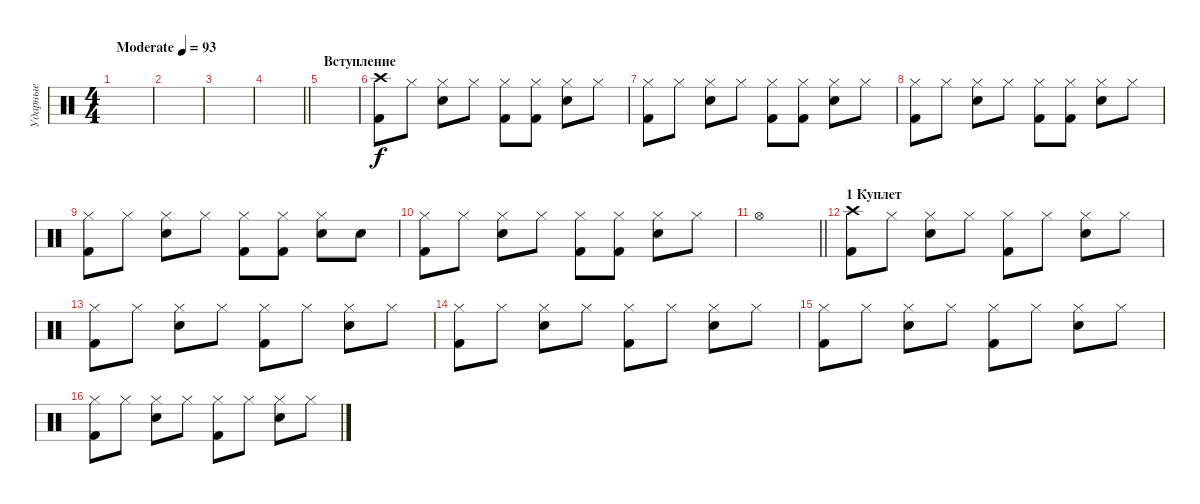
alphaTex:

\track ("Ударные" "Ударные") {instrument percussion}
\staff
\articulation defaults
\ts (4 4)
\tempo (93 "Moderate")
\clef neutral
\ks c
|
|
|
\barLineRight lightlight
|
\section ("" "Вступление")
|
("Crash high (hit)" "Kick (hit) 2").8 "Hi-Hat (closed)".8 ("Hi-Hat (closed)" "Electric Snare (hit)").8 "Hi-Hat (closed)".8 ("Hi-Hat (closed)" "Kick (hit) 2").8 ("Hi-Hat (closed)" "Kick (hit) 2").8 ("Hi-Hat (closed)" "Electric Snare (hit)").8 "Hi-Hat (closed)".8 |
("Hi-Hat (closed)" "Kick (hit) 2").8 "Hi-Hat (closed)".8 ("Hi-Hat (closed)" "Electric Snare (hit)").8 "Hi-Hat (closed)".8 ("Hi-Hat (closed)" "Kick (hit) 2").8 ("Hi-Hat (closed)" "Kick (hit) 2").8 ("Hi-Hat (closed)" "Electric Snare (hit)").8 "Hi-Hat (closed)".8 |
("Hi-Hat (closed)" "Kick (hit) 2").8 "Hi-Hat (closed)".8 ("Hi-Hat (closed)" "Electric Snare (hit)").8 "Hi-Hat (closed)".8 ("Hi-Hat (closed)" "Kick (hit) 2").8 ("Hi-Hat (closed)" "Kick (hit) 2").8 ("Hi-Hat (closed)" "Electric Snare (hit)").8 "Hi-Hat (closed)".8 |
("Hi-Hat (closed)" "Kick (hit) 2").8 "Hi-Hat (closed)".8 ("Hi-Hat (closed)" "Electric Snare (hit)").8 "Hi-Hat (closed)".8 ("Hi-Hat (closed)" "Kick (hit) 2").8 ("Hi-Hat (closed)" "Kick (hit) 2").8 ("Hi-Hat (closed)" "Electric Snare (hit)").8 "Electric Snare (hit)".8 |
("Hi-Hat (closed)" "Kick (hit) 2").8 "Hi-Hat (closed)".8 ("Hi-Hat (closed)" "Electric Snare (hit)").8 "Hi-Hat (closed)".8 ("Hi-Hat (closed)" "Kick (hit) 2").8 ("Hi-Hat (closed)" "Kick (hit) 2").8 ("Hi-Hat (closed)" "Electric Snare (hit)").8 "Hi-Hat (closed)".8 |
\barLineRight lightlight "Hi-Hat (open)".1
|
\section ("" "1 Куплет")
("Crash high (hit)" "Kick (hit) 2").8 "Hi-Hat (closed)".8 ("Hi-Hat (closed)" "Electric Snare (hit)").8 "Hi-Hat (closed)".8 ("Hi-Hat (closed)" "Kick (hit) 2").8 "Hi-Hat (closed)".8 ("Hi-Hat (closed)" "Electric Snare (hit)").8 "Hi-Hat (closed)".8 |
("Hi-Hat (closed)" "Kick (hit) 2").8 "Hi-Hat (closed)".8 ("Hi-Hat (closed)" "Electric Snare (hit)").8 "Hi-Hat (closed)".8 ("Hi-Hat (closed)" "Kick (hit) 2").8 "Hi-Hat (closed)".8 ("Hi-Hat (closed)" "Electric Snare (hit)").8 "Hi-Hat (closed)".8 |
("Hi-Hat (closed)" "Kick (hit) 2").8 "Hi-Hat (closed)".8 ("Hi-Hat (closed)" "Electric Snare (hit)").8 "Hi-Hat (closed)".8 ("Hi-Hat (closed)" "Kick (hit) 2").8 "Hi-Hat (closed)".8 ("Hi-Hat (closed)" "Electric Snare (hit)").8 "Hi-Hat (closed)".8 |
("Hi-Hat (closed)" "Kick (hit) 2").8 "Hi-Hat (closed)".8 ("Hi-Hat (closed)" "Electric Snare (hit)").8 "Hi-Hat (closed)".8 ("Hi-Hat (closed)" "Kick (hit) 2").8 "Hi-Hat (closed)".8 ("Hi-Hat (closed)" "Electric Snare (hit)").8 "Hi-Hat (closed)".8 |
("Hi-Hat (closed)" "Kick (hit) 2").8 "Hi-Hat (closed)".8 ("Hi-Hat (closed)" "Electric Snare (hit)").8 "Hi-Hat (closed)".8 ("Hi-Hat (closed)" "Kick (hit) 2").8 "Hi-Hat (closed)".8 ("Hi-Hat (closed)" "Electric Snare (hit)").8 "Hi-Hat (closed)".8
